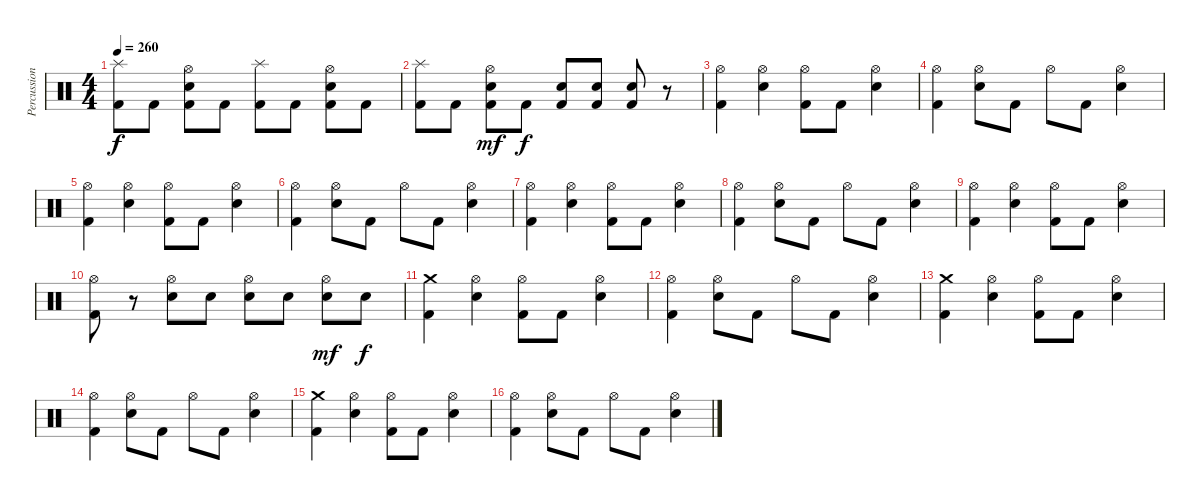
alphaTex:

\track ("Percussion" "Percussion") {instrument percussion}
\staff {score}
\articulation defaults
\ts (4 4)
\tempo 260
\clef neutral
\ks c
("Kick (hit) 2" "Splash (hit)").8{dy f} "Kick (hit) 2".8 ("Kick (hit) 2" "Electric Snare (hit)" "Hi-Hat (open)").8 "Kick (hit) 2".8 ("Kick (hit) 2" "Splash (hit)").8 "Kick (hit) 2".8 ("Kick (hit) 2" "Electric Snare (hit)" "Hi-Hat (open)").8 "Kick (hit) 2".8 |
("Kick (hit) 2" "Splash (hit)").8 "Kick (hit) 2".8 ("Kick (hit) 2" "Electric Snare (hit)" "Hi-Hat (open)").8{dy mf} "Kick (hit) 2".8{dy f} ("Kick (hit) 2" "Electric Snare (hit)").8 ("Kick (hit) 2" "Electric Snare (hit)").8 ("Kick (hit) 2" "Electric Snare (hit)").8 r.8 |
("Kick (hit) 2" "Hi-Hat (open)").4 ("Electric Snare (hit)" "Hi-Hat (open)").4 ("Kick (hit) 2" "Hi-Hat (open)").8 "Kick (hit) 2".8 ("Electric Snare (hit)" "Hi-Hat (open)").4 |
("Kick (hit) 2" "Hi-Hat (open)").4 ("Electric Snare (hit)" "Hi-Hat (open)").8 "Kick (hit) 2".8 "Hi-Hat (open)".8 "Kick (hit) 2".8 ("Electric Snare (hit)" "Hi-Hat (open)").4 |
("Kick (hit) 2" "Hi-Hat (open)").4 ("Electric Snare (hit)" "Hi-Hat (open)").4 ("Kick (hit) 2" "Hi-Hat (open)").8 "Kick (hit) 2".8 ("Electric Snare (hit)" "Hi-Hat (open)").4 |
("Kick (hit) 2" "Hi-Hat (open)").4 ("Electric Snare (hit)" "Hi-Hat (open)").8 "Kick (hit) 2".8 "Hi-Hat (open)".8 "Kick (hit) 2".8 ("Electric Snare (hit)" "Hi-Hat (open)").4 |
("Kick (hit) 2" "Hi-Hat (open)").4 ("Electric Snare (hit)" "Hi-Hat (open)").4 ("Kick (hit) 2" "Hi-Hat (open)").8 "Kick (hit) 2".8 ("Electric Snare (hit)" "Hi-Hat (open)").4 |
("Kick (hit) 2" "Hi-Hat (open)").4 ("Electric Snare (hit)" "Hi-Hat (open)").8 "Kick (hit) 2".8 "Hi-Hat (open)".8 "Kick (hit) 2".8 ("Electric Snare (hit)" "Hi-Hat (open)").4 |
("Kick (hit) 2" "Hi-Hat (open)").4 ("Electric Snare (hit)" "Hi-Hat (open)").4 ("Kick (hit) 2" "Hi-Hat (open)").8 "Kick (hit) 2".8 ("Electric Snare (hit)" "Hi-Hat (open)").4 |
("Kick (hit) 2" "Hi-Hat (open)").8 r.8 ("Electric Snare (hit)" "Hi-Hat (open)").8 "Electric Snare (hit)".8 ("Electric Snare (hit)" "Hi-Hat (open)").8 "Electric Snare (hit)".8 ("Electric Snare (hit)" "Hi-Hat (open)").8{dy mf} "Electric Snare (hit)".8{dy f} |
("Kick (hit) 2" "Crash medium (hit)").4 ("Electric Snare (hit)" "Hi-Hat (open)").4 ("Kick (hit) 2" "Hi-Hat (open)").8 "Kick (hit) 2".8 ("Electric Snare (hit)" "Hi-Hat (open)").4 |
("Kick (hit) 2" "Hi-Hat (open)").4 ("Electric Snare (hit)" "Hi-Hat (open)").8 "Kick (hit) 2".8 "Hi-Hat (open)".8 "Kick (hit) 2".8 ("Electric Snare (hit)" "Hi-Hat (open)").4 |
("Kick (hit) 2" "Crash medium (hit)").4 ("Electric Snare (hit)" "Hi-Hat (open)").4 ("Kick (hit) 2" "Hi-Hat (open)").8 "Kick (hit) 2".8 ("Electric Snare (hit)" "Hi-Hat (open)").4 |
("Kick (hit) 2" "Hi-Hat (open)").4 ("Electric Snare (hit)" "Hi-Hat (open)").8 "Kick (hit) 2".8 "Hi-Hat (open)".8 "Kick (hit) 2".8 ("Electric Snare (hit)" "Hi-Hat (open)").4 |
("Kick (hit) 2" "Crash medium (hit)").4 ("Electric Snare (hit)" "Hi-Hat (open)").4 ("Kick (hit) 2" "Hi-Hat (open)").8 "Kick (hit) 2".8 ("Electric Snare (hit)" "Hi-Hat (open)").4 |
("Kick (hit) 2" "Hi-Hat (open)").4 ("Electric Snare (hit)" "Hi-Hat (open)").8 "Kick (hit) 2".8 "Hi-Hat (open)".8 "Kick (hit) 2".8 ("Electric Snare (hit)" "Hi-Hat (open)").4
